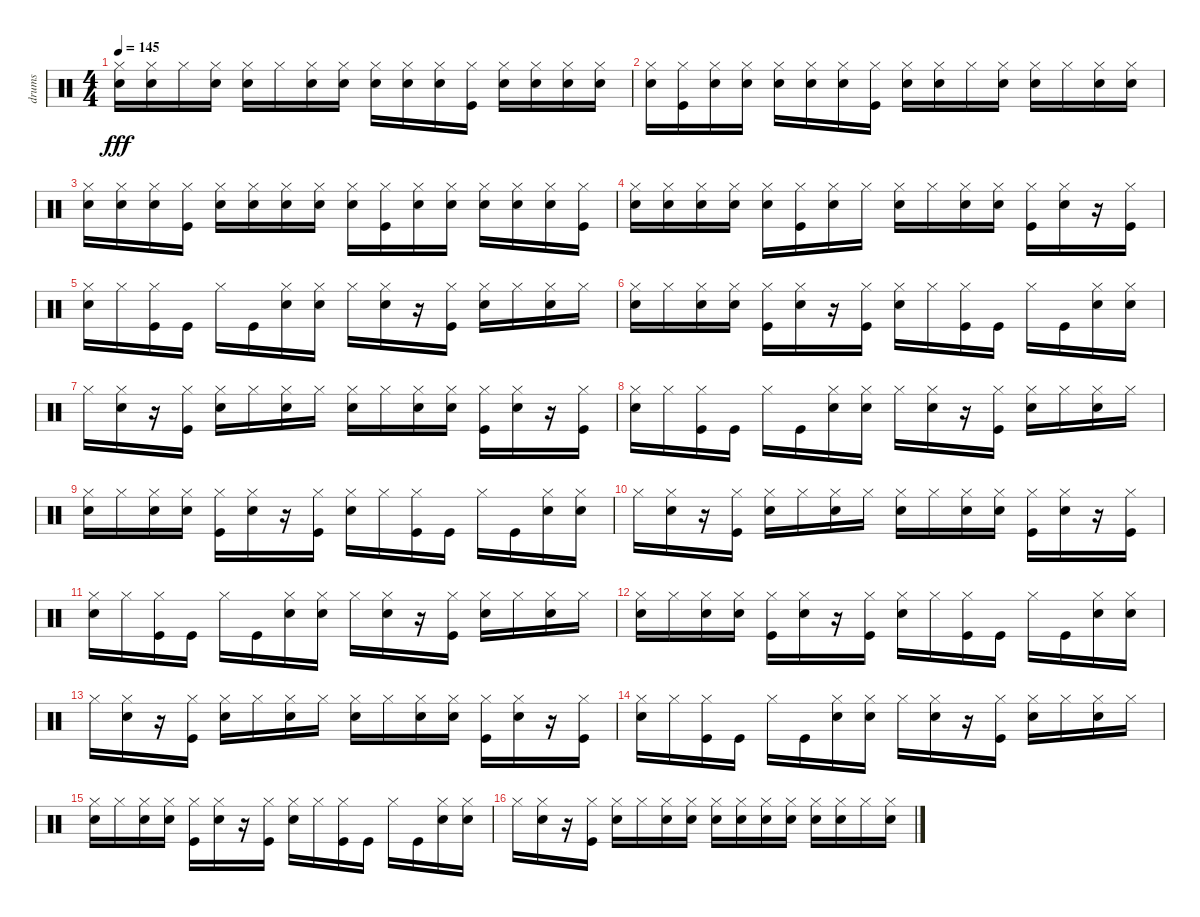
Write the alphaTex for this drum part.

\track ("drums" "drums") {instrument percussion}
\staff {score}
\articulation defaults
\ts (4 4)
\tempo 145
\clef neutral
\ks c
("Snare (hit) 2" "Hi-Hat (closed)").16{dy fff} ("Snare (hit) 2" "Hi-Hat (closed)").16 "Hi-Hat (closed)".16 ("Snare (hit) 2" "Hi-Hat (closed)").16 ("Snare (hit) 2" "Hi-Hat (closed)").16 "Hi-Hat (closed)".16 ("Snare (hit) 2" "Hi-Hat (closed)").16 ("Snare (hit) 2" "Hi-Hat (closed)").16 ("Snare (hit) 2" "Hi-Hat (closed)").16 ("Snare (hit) 2" "Hi-Hat (closed)").16 ("Snare (hit) 2" "Hi-Hat (closed)").16 ("Kick (hit)" "Hi-Hat (closed)").16 ("Snare (hit) 2" "Hi-Hat (closed)").16 ("Snare (hit) 2" "Hi-Hat (closed)").16 ("Snare (hit) 2" "Hi-Hat (closed)").16 ("Snare (hit) 2" "Hi-Hat (closed)").16 |
("Snare (hit) 2" "Hi-Hat (closed)").16 ("Kick (hit)" "Hi-Hat (closed)").16 ("Snare (hit) 2" "Hi-Hat (closed)").16 ("Snare (hit) 2" "Hi-Hat (closed)").16 ("Snare (hit) 2" "Hi-Hat (closed)").16 ("Snare (hit) 2" "Hi-Hat (closed)").16 ("Snare (hit) 2" "Hi-Hat (closed)").16 ("Kick (hit)" "Hi-Hat (closed)").16 ("Snare (hit) 2" "Hi-Hat (closed)").16 ("Snare (hit) 2" "Hi-Hat (closed)").16 "Hi-Hat (closed)".16 ("Snare (hit) 2" "Hi-Hat (closed)").16 ("Snare (hit) 2" "Hi-Hat (closed)").16 "Hi-Hat (closed)".16 ("Snare (hit) 2" "Hi-Hat (closed)").16 ("Snare (hit) 2" "Hi-Hat (closed)").16 |
("Snare (hit) 2" "Hi-Hat (closed)").16 ("Snare (hit) 2" "Hi-Hat (closed)").16 ("Snare (hit) 2" "Hi-Hat (closed)").16 ("Kick (hit)" "Hi-Hat (closed)").16 ("Snare (hit) 2" "Hi-Hat (closed)").16 ("Snare (hit) 2" "Hi-Hat (closed)").16 ("Snare (hit) 2" "Hi-Hat (closed)").16 ("Snare (hit) 2" "Hi-Hat (closed)").16 ("Snare (hit) 2" "Hi-Hat (closed)").16 ("Kick (hit)" "Hi-Hat (closed)").16 ("Snare (hit) 2" "Hi-Hat (closed)").16 ("Snare (hit) 2" "Hi-Hat (closed)").16 ("Snare (hit) 2" "Hi-Hat (closed)").16 ("Snare (hit) 2" "Hi-Hat (closed)").16 ("Snare (hit) 2" "Hi-Hat (closed)").16 ("Kick (hit)" "Hi-Hat (closed)").16 |
("Snare (hit) 2" "Hi-Hat (closed)").16 ("Snare (hit) 2" "Hi-Hat (closed)").16 ("Snare (hit) 2" "Hi-Hat (closed)").16 ("Snare (hit) 2" "Hi-Hat (closed)").16 ("Snare (hit) 2" "Hi-Hat (closed)").16 ("Kick (hit)" "Hi-Hat (closed)").16 ("Snare (hit) 2" "Hi-Hat (closed)").16 "Hi-Hat (closed)".16 ("Snare (hit) 2" "Hi-Hat (closed)").16 "Hi-Hat (closed)".16 ("Snare (hit) 2" "Hi-Hat (closed)").16 ("Snare (hit) 2" "Hi-Hat (closed)").16 ("Kick (hit)" "Hi-Hat (closed)").16 ("Snare (hit) 2" "Hi-Hat (closed)").16 r.16 ("Kick (hit)" "Hi-Hat (closed)").16 |
("Snare (hit) 2" "Hi-Hat (closed)").16 "Hi-Hat (closed)".16 ("Kick (hit)" "Hi-Hat (closed)").16 "Kick (hit)".16 "Hi-Hat (closed)".16 "Kick (hit)".16 ("Snare (hit) 2" "Hi-Hat (closed)").16 ("Snare (hit) 2" "Hi-Hat (closed)").16 "Hi-Hat (closed)".16 ("Snare (hit) 2" "Hi-Hat (closed)").16 r.16 ("Kick (hit)" "Hi-Hat (closed)").16 ("Snare (hit) 2" "Hi-Hat (closed)").16 "Hi-Hat (closed)".16 ("Snare (hit) 2" "Hi-Hat (closed)").16 "Hi-Hat (closed)".16 |
("Snare (hit) 2" "Hi-Hat (closed)").16 "Hi-Hat (closed)".16 ("Snare (hit) 2" "Hi-Hat (closed)").16 ("Snare (hit) 2" "Hi-Hat (closed)").16 ("Kick (hit)" "Hi-Hat (closed)").16 ("Snare (hit) 2" "Hi-Hat (closed)").16 r.16 ("Kick (hit)" "Hi-Hat (closed)").16 ("Snare (hit) 2" "Hi-Hat (closed)").16 "Hi-Hat (closed)".16 ("Kick (hit)" "Hi-Hat (closed)").16 "Kick (hit)".16 "Hi-Hat (closed)".16 "Kick (hit)".16 ("Snare (hit) 2" "Hi-Hat (closed)").16 ("Snare (hit) 2" "Hi-Hat (closed)").16 |
"Hi-Hat (closed)".16 ("Snare (hit) 2" "Hi-Hat (closed)").16 r.16 ("Kick (hit)" "Hi-Hat (closed)").16 ("Snare (hit) 2" "Hi-Hat (closed)").16 "Hi-Hat (closed)".16 ("Snare (hit) 2" "Hi-Hat (closed)").16 "Hi-Hat (closed)".16 ("Snare (hit) 2" "Hi-Hat (closed)").16 "Hi-Hat (closed)".16 ("Snare (hit) 2" "Hi-Hat (closed)").16 ("Snare (hit) 2" "Hi-Hat (closed)").16 ("Kick (hit)" "Hi-Hat (closed)").16 ("Snare (hit) 2" "Hi-Hat (closed)").16 r.16 ("Kick (hit)" "Hi-Hat (closed)").16 |
("Snare (hit) 2" "Hi-Hat (closed)").16 "Hi-Hat (closed)".16 ("Kick (hit)" "Hi-Hat (closed)").16 "Kick (hit)".16 "Hi-Hat (closed)".16 "Kick (hit)".16 ("Snare (hit) 2" "Hi-Hat (closed)").16 ("Snare (hit) 2" "Hi-Hat (closed)").16 "Hi-Hat (closed)".16 ("Snare (hit) 2" "Hi-Hat (closed)").16 r.16 ("Kick (hit)" "Hi-Hat (closed)").16 ("Snare (hit) 2" "Hi-Hat (closed)").16 "Hi-Hat (closed)".16 ("Snare (hit) 2" "Hi-Hat (closed)").16 "Hi-Hat (closed)".16 |
("Snare (hit) 2" "Hi-Hat (closed)").16 "Hi-Hat (closed)".16 ("Snare (hit) 2" "Hi-Hat (closed)").16 ("Snare (hit) 2" "Hi-Hat (closed)").16 ("Kick (hit)" "Hi-Hat (closed)").16 ("Snare (hit) 2" "Hi-Hat (closed)").16 r.16 ("Kick (hit)" "Hi-Hat (closed)").16 ("Snare (hit) 2" "Hi-Hat (closed)").16 "Hi-Hat (closed)".16 ("Kick (hit)" "Hi-Hat (closed)").16 "Kick (hit)".16 "Hi-Hat (closed)".16 "Kick (hit)".16 ("Snare (hit) 2" "Hi-Hat (closed)").16 ("Snare (hit) 2" "Hi-Hat (closed)").16 |
"Hi-Hat (closed)".16 ("Snare (hit) 2" "Hi-Hat (closed)").16 r.16 ("Kick (hit)" "Hi-Hat (closed)").16 ("Snare (hit) 2" "Hi-Hat (closed)").16 "Hi-Hat (closed)".16 ("Snare (hit) 2" "Hi-Hat (closed)").16 "Hi-Hat (closed)".16 ("Snare (hit) 2" "Hi-Hat (closed)").16 "Hi-Hat (closed)".16 ("Snare (hit) 2" "Hi-Hat (closed)").16 ("Snare (hit) 2" "Hi-Hat (closed)").16 ("Kick (hit)" "Hi-Hat (closed)").16 ("Snare (hit) 2" "Hi-Hat (closed)").16 r.16 ("Kick (hit)" "Hi-Hat (closed)").16 |
("Snare (hit) 2" "Hi-Hat (closed)").16 "Hi-Hat (closed)".16 ("Kick (hit)" "Hi-Hat (closed)").16 "Kick (hit)".16 "Hi-Hat (closed)".16 "Kick (hit)".16 ("Snare (hit) 2" "Hi-Hat (closed)").16 ("Snare (hit) 2" "Hi-Hat (closed)").16 "Hi-Hat (closed)".16 ("Snare (hit) 2" "Hi-Hat (closed)").16 r.16 ("Kick (hit)" "Hi-Hat (closed)").16 ("Snare (hit) 2" "Hi-Hat (closed)").16 "Hi-Hat (closed)".16 ("Snare (hit) 2" "Hi-Hat (closed)").16 "Hi-Hat (closed)".16 |
("Snare (hit) 2" "Hi-Hat (closed)").16 "Hi-Hat (closed)".16 ("Snare (hit) 2" "Hi-Hat (closed)").16 ("Snare (hit) 2" "Hi-Hat (closed)").16 ("Kick (hit)" "Hi-Hat (closed)").16 ("Snare (hit) 2" "Hi-Hat (closed)").16 r.16 ("Kick (hit)" "Hi-Hat (closed)").16 ("Snare (hit) 2" "Hi-Hat (closed)").16 "Hi-Hat (closed)".16 ("Kick (hit)" "Hi-Hat (closed)").16 "Kick (hit)".16 "Hi-Hat (closed)".16 "Kick (hit)".16 ("Snare (hit) 2" "Hi-Hat (closed)").16 ("Snare (hit) 2" "Hi-Hat (closed)").16 |
"Hi-Hat (closed)".16 ("Snare (hit) 2" "Hi-Hat (closed)").16 r.16 ("Kick (hit)" "Hi-Hat (closed)").16 ("Snare (hit) 2" "Hi-Hat (closed)").16 "Hi-Hat (closed)".16 ("Snare (hit) 2" "Hi-Hat (closed)").16 "Hi-Hat (closed)".16 ("Snare (hit) 2" "Hi-Hat (closed)").16 "Hi-Hat (closed)".16 ("Snare (hit) 2" "Hi-Hat (closed)").16 ("Snare (hit) 2" "Hi-Hat (closed)").16 ("Kick (hit)" "Hi-Hat (closed)").16 ("Snare (hit) 2" "Hi-Hat (closed)").16 r.16 ("Kick (hit)" "Hi-Hat (closed)").16 |
("Snare (hit) 2" "Hi-Hat (closed)").16 "Hi-Hat (closed)".16 ("Kick (hit)" "Hi-Hat (closed)").16 "Kick (hit)".16 "Hi-Hat (closed)".16 "Kick (hit)".16 ("Snare (hit) 2" "Hi-Hat (closed)").16 ("Snare (hit) 2" "Hi-Hat (closed)").16 "Hi-Hat (closed)".16 ("Snare (hit) 2" "Hi-Hat (closed)").16 r.16 ("Kick (hit)" "Hi-Hat (closed)").16 ("Snare (hit) 2" "Hi-Hat (closed)").16 "Hi-Hat (closed)".16 ("Snare (hit) 2" "Hi-Hat (closed)").16 "Hi-Hat (closed)".16 |
("Snare (hit) 2" "Hi-Hat (closed)").16 "Hi-Hat (closed)".16 ("Snare (hit) 2" "Hi-Hat (closed)").16 ("Snare (hit) 2" "Hi-Hat (closed)").16 ("Kick (hit)" "Hi-Hat (closed)").16 ("Snare (hit) 2" "Hi-Hat (closed)").16 r.16 ("Kick (hit)" "Hi-Hat (closed)").16 ("Snare (hit) 2" "Hi-Hat (closed)").16 "Hi-Hat (closed)".16 ("Kick (hit)" "Hi-Hat (closed)").16 "Kick (hit)".16 "Hi-Hat (closed)".16 "Kick (hit)".16 ("Snare (hit) 2" "Hi-Hat (closed)").16 ("Snare (hit) 2" "Hi-Hat (closed)").16 |
"Hi-Hat (closed)".16 ("Snare (hit) 2" "Hi-Hat (closed)").16 r.16 ("Kick (hit)" "Hi-Hat (closed)").16 ("Snare (hit) 2" "Hi-Hat (closed)").16 "Hi-Hat (closed)".16 ("Snare (hit) 2" "Hi-Hat (closed)").16 ("Snare (hit) 2" "Hi-Hat (closed)").16 ("Snare (hit) 2" "Hi-Hat (closed)").16 ("Snare (hit) 2" "Hi-Hat (closed)").16 ("Snare (hit) 2" "Hi-Hat (closed)").16 ("Snare (hit) 2" "Hi-Hat (closed)").16 ("Snare (hit) 2" "Hi-Hat (closed)").16 ("Snare (hit) 2" "Hi-Hat (closed)").16 "Hi-Hat (closed)".16 ("Snare (hit) 2" "Hi-Hat (closed)").16
